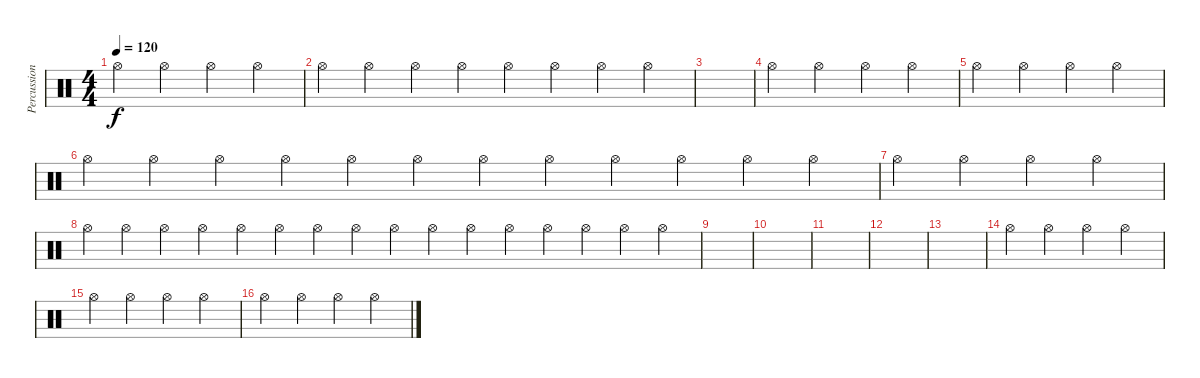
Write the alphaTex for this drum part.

\track ("Percussioni" "Percussion") {instrument percussion}
\staff {score}
\articulation defaults
\ts (4 4)
\tempo 120
\clef neutral
\ks c "Hi-Hat (open)".4{dy f} "Hi-Hat (open)".4 "Hi-Hat (open)".4 "Hi-Hat (open)".4
|
"Hi-Hat (open)".4 "Hi-Hat (open)".4 "Hi-Hat (open)".4 "Hi-Hat (open)".4 "Hi-Hat (open)".4 "Hi-Hat (open)".4 "Hi-Hat (open)".4 "Hi-Hat (open)".4 |
|
"Hi-Hat (open)".4 "Hi-Hat (open)".4 "Hi-Hat (open)".4 "Hi-Hat (open)".4 |
"Hi-Hat (open)".4 "Hi-Hat (open)".4 "Hi-Hat (open)".4 "Hi-Hat (open)".4 |
"Hi-Hat (open)".4 "Hi-Hat (open)".4 "Hi-Hat (open)".4 "Hi-Hat (open)".4 "Hi-Hat (open)".4 "Hi-Hat (open)".4 "Hi-Hat (open)".4 "Hi-Hat (open)".4 "Hi-Hat (open)".4 "Hi-Hat (open)".4 "Hi-Hat (open)".4 "Hi-Hat (open)".4 |
"Hi-Hat (open)".4 "Hi-Hat (open)".4 "Hi-Hat (open)".4 "Hi-Hat (open)".4 |
"Hi-Hat (open)".4 "Hi-Hat (open)".4 "Hi-Hat (open)".4 "Hi-Hat (open)".4 "Hi-Hat (open)".4 "Hi-Hat (open)".4 "Hi-Hat (open)".4 "Hi-Hat (open)".4 "Hi-Hat (open)".4 "Hi-Hat (open)".4 "Hi-Hat (open)".4 "Hi-Hat (open)".4 "Hi-Hat (open)".4 "Hi-Hat (open)".4 "Hi-Hat (open)".4 "Hi-Hat (open)".4 |
|
|
|
|
|
"Hi-Hat (open)".4 "Hi-Hat (open)".4 "Hi-Hat (open)".4 "Hi-Hat (open)".4 |
"Hi-Hat (open)".4 "Hi-Hat (open)".4 "Hi-Hat (open)".4 "Hi-Hat (open)".4 |
"Hi-Hat (open)".4 "Hi-Hat (open)".4 "Hi-Hat (open)".4 "Hi-Hat (open)".4
